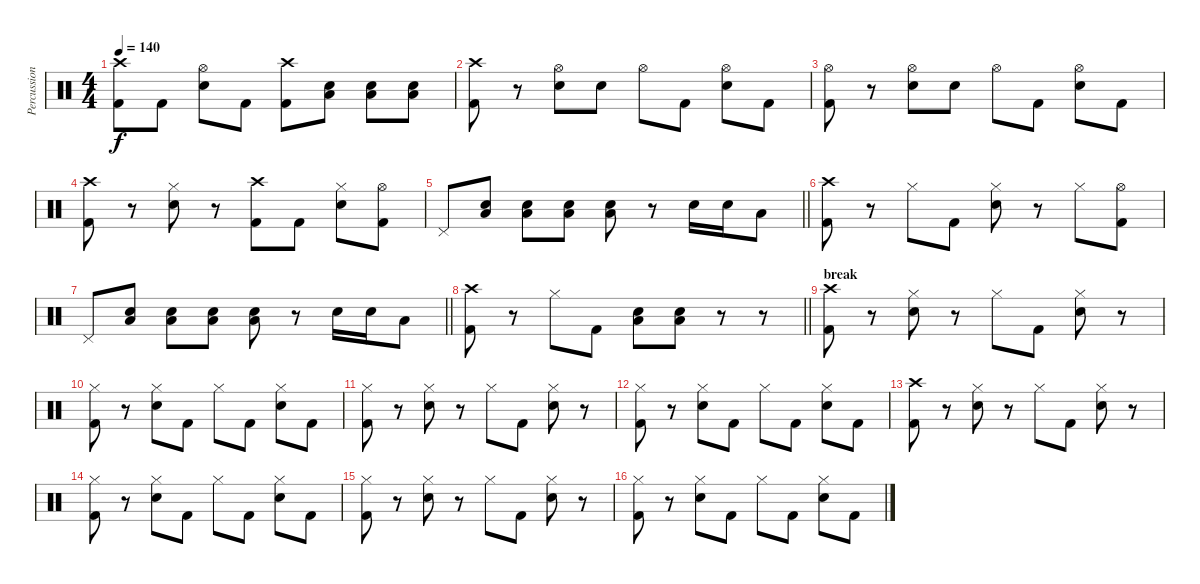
\track ("Percussion" "Percussion") {instrument percussion}
\staff {score}
\articulation defaults
\ts (4 4)
\tempo 140
\clef neutral
\ks c
("Crash high (hit)" "Kick (hit) 2").8{dy f} "Kick (hit) 2".8 ("Hi-Hat (open)" "Snare (hit) 2").8 "Kick (hit) 2".8 ("Crash high (hit)" "Kick (hit) 2").8 ("Low Floor Tom (hit)" "Snare (hit) 2").8 ("Low Floor Tom (hit)" "Snare (hit) 2").8 ("Low Floor Tom (hit)" "Snare (hit) 2").8 |
("Crash high (hit)" "Kick (hit) 2").8 r.8 ("Hi-Hat (open)" "Snare (hit) 2").8 "Snare (hit) 2".8 "Hi-Hat (open)".8 "Kick (hit) 2".8 ("Hi-Hat (open)" "Snare (hit) 2").8 "Kick (hit) 2".8 |
("Hi-Hat (open)" "Kick (hit) 2").8 r.8 ("Hi-Hat (open)" "Snare (hit) 2").8 "Snare (hit) 2".8 "Hi-Hat (open)".8 "Kick (hit) 2".8 ("Hi-Hat (open)" "Snare (hit) 2").8 "Kick (hit) 2".8 |
("Crash high (hit)" "Kick (hit) 2").8 r.8 ("Hi-Hat (closed)" "Snare (hit) 2").8 r.8 ("Crash high (hit)" "Kick (hit) 2").8 "Kick (hit) 2".8 ("Hi-Hat (closed)" "Snare (hit) 2").8 ("Hi-Hat (open)" "Kick (hit) 2").8 |
\barLineRight lightlight "Pedal Hi-Hat (hit)".8
("Low Floor Tom (hit)" "Snare (hit) 2").8 ("Low Floor Tom (hit)" "Snare (hit) 2").8 ("Low Floor Tom (hit)" "Snare (hit) 2").8 ("Low Floor Tom (hit)" "Snare (hit) 2").8 r.8 "Snare (hit) 2".16 "Snare (hit) 2".16 "Low Floor Tom (hit)".8 |
("Crash high (hit)" "Kick (hit) 2").8 r.8 "Hi-Hat (closed)".8 "Kick (hit) 2".8 ("Hi-Hat (closed)" "Snare (hit) 2").8 r.8 "Hi-Hat (closed)".8 ("Hi-Hat (open)" "Kick (hit) 2").8 |
\barLineRight lightlight "Pedal Hi-Hat (hit)".8
("Low Floor Tom (hit)" "Snare (hit) 2").8 ("Low Floor Tom (hit)" "Snare (hit) 2").8 ("Low Floor Tom (hit)" "Snare (hit) 2").8 ("Low Floor Tom (hit)" "Snare (hit) 2").8 r.8 "Snare (hit) 2".16 "Snare (hit) 2".16 "Low Floor Tom (hit)".8 |
\barLineRight lightlight
("Crash high (hit)" "Kick (hit) 2").8 r.8 "Hi-Hat (closed)".8 "Kick (hit) 2".8 ("Low Floor Tom (hit)" "Snare (hit) 2").8 ("Low Floor Tom (hit)" "Snare (hit) 2").8 r.8 r.8 |
\section ("" "break")
("Crash high (hit)" "Kick (hit) 2").8 r.8 ("Hi-Hat (closed)" "Snare (hit) 2").8 r.8 "Hi-Hat (closed)".8 "Kick (hit) 2".8 ("Hi-Hat (closed)" "Snare (hit) 2").8 r.8 |
("Hi-Hat (closed)" "Kick (hit) 2").8 r.8 ("Hi-Hat (closed)" "Snare (hit) 2").8 "Kick (hit) 2".8 "Hi-Hat (closed)".8 "Kick (hit) 2".8 ("Hi-Hat (closed)" "Snare (hit) 2").8 "Kick (hit) 2".8 |
("Hi-Hat (closed)" "Kick (hit) 2").8 r.8 ("Hi-Hat (closed)" "Snare (hit) 2").8 r.8 "Hi-Hat (closed)".8 "Kick (hit) 2".8 ("Hi-Hat (closed)" "Snare (hit) 2").8 r.8 |
("Hi-Hat (closed)" "Kick (hit) 2").8 r.8 ("Hi-Hat (closed)" "Snare (hit) 2").8 "Kick (hit) 2".8 "Hi-Hat (closed)".8 "Kick (hit) 2".8 ("Hi-Hat (closed)" "Snare (hit) 2").8 "Kick (hit) 2".8 |
("Crash high (hit)" "Kick (hit) 2").8 r.8 ("Hi-Hat (closed)" "Snare (hit) 2").8 r.8 "Hi-Hat (closed)".8 "Kick (hit) 2".8 ("Hi-Hat (closed)" "Snare (hit) 2").8 r.8 |
("Hi-Hat (closed)" "Kick (hit) 2").8 r.8 ("Hi-Hat (closed)" "Snare (hit) 2").8 "Kick (hit) 2".8 "Hi-Hat (closed)".8 "Kick (hit) 2".8 ("Hi-Hat (closed)" "Snare (hit) 2").8 "Kick (hit) 2".8 |
("Hi-Hat (closed)" "Kick (hit) 2").8 r.8 ("Hi-Hat (closed)" "Snare (hit) 2").8 r.8 "Hi-Hat (closed)".8 "Kick (hit) 2".8 ("Hi-Hat (closed)" "Snare (hit) 2").8 r.8 |
("Hi-Hat (closed)" "Kick (hit) 2").8 r.8 ("Hi-Hat (closed)" "Snare (hit) 2").8 "Kick (hit) 2".8 "Hi-Hat (closed)".8 "Kick (hit) 2".8 ("Hi-Hat (closed)" "Snare (hit) 2").8 "Kick (hit) 2".8
